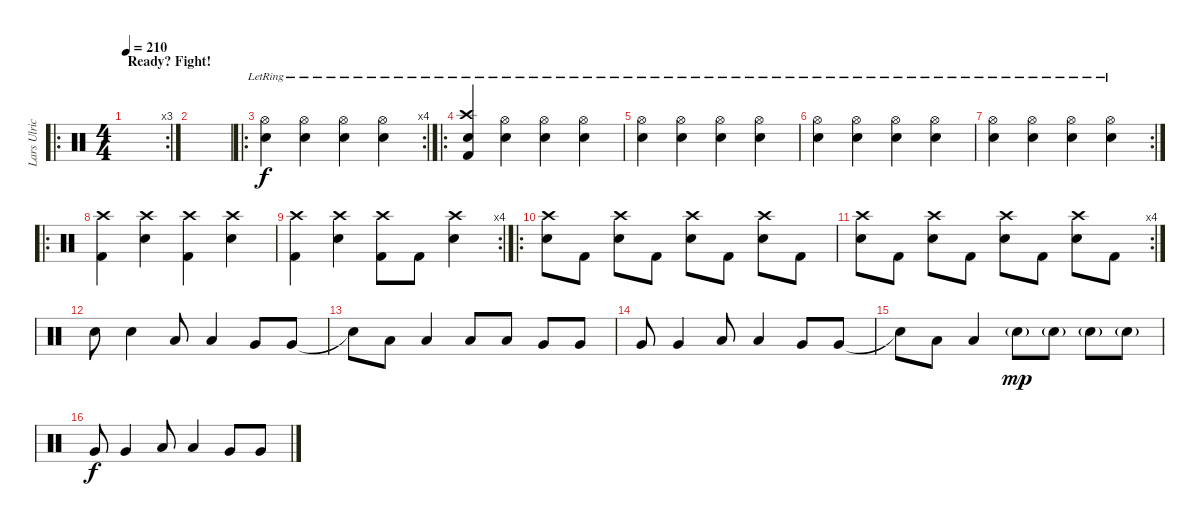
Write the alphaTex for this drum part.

\track ("Lars Ulrich" "Lars Ulric") {instrument percussion}
\staff {score}
\articulation defaults
\ro
\rc 3
\ts (4 4)
\section ("" "Ready? Fight!")
\tempo 210
\clef neutral
\ks c
|
|
\ro
\rc 4
("Hi-Hat (open)"{lr} "Snare (hit) 2").4 ("Hi-Hat (open)"{lr} "Snare (hit) 2").4 ("Hi-Hat (open)"{lr} "Snare (hit) 2").4 ("Hi-Hat (open)"{lr} "Snare (hit) 2").4 |
\ro
("Crash high (hit)"{lr} "Snare (hit) 2" "Kick (hit) 2").4 ("Hi-Hat (open)"{lr} "Snare (hit) 2").4 ("Hi-Hat (open)"{lr} "Snare (hit) 2").4 ("Hi-Hat (open)"{lr} "Snare (hit) 2").4 |
("Hi-Hat (open)"{lr} "Snare (hit) 2").4 ("Hi-Hat (open)"{lr} "Snare (hit) 2").4 ("Hi-Hat (open)"{lr} "Snare (hit) 2").4 ("Hi-Hat (open)"{lr} "Snare (hit) 2").4 |
("Hi-Hat (open)"{lr} "Snare (hit) 2").4 ("Hi-Hat (open)"{lr} "Snare (hit) 2").4 ("Hi-Hat (open)"{lr} "Snare (hit) 2").4 ("Hi-Hat (open)"{lr} "Snare (hit) 2").4 |
\rc 2
("Hi-Hat (open)"{lr} "Snare (hit) 2").4 ("Hi-Hat (open)"{lr} "Snare (hit) 2").4 ("Hi-Hat (open)"{lr} "Snare (hit) 2").4 ("Hi-Hat (open)"{lr} "Snare (hit) 2").4 |
\ro
("Crash high (hit)" "Kick (hit) 2").4 ("Crash high (hit)" "Snare (hit) 2").4 ("Crash high (hit)" "Kick (hit) 2").4 ("Crash high (hit)" "Snare (hit) 2").4 |
\rc 4
("Crash high (hit)" "Kick (hit) 2").4 ("Crash high (hit)" "Snare (hit) 2").4 ("Crash high (hit)" "Kick (hit) 2").8 "Kick (hit) 2".8 ("Crash high (hit)" "Snare (hit) 2").4 |
\ro
("Crash high (hit)" "Snare (hit) 2").8 "Kick (hit) 2".8 ("Crash high (hit)" "Snare (hit) 2").8 "Kick (hit) 2".8 ("Crash high (hit)" "Snare (hit) 2").8 "Kick (hit) 2".8 ("Crash high (hit)" "Snare (hit) 2").8 "Kick (hit) 2".8 |
\rc 4
("Crash high (hit)" "Snare (hit) 2").8 "Kick (hit) 2".8 ("Crash high (hit)" "Snare (hit) 2").8 "Kick (hit) 2".8 ("Crash high (hit)" "Snare (hit) 2").8 "Kick (hit) 2".8 ("Crash high (hit)" "Snare (hit) 2").8 "Kick (hit) 2".8 |
"Snare (hit) 2".8 "Snare (hit) 2".4 "Low Tom (hit)".8 "Low Tom (hit)".4 "Very Low Tom (hit)".8 "Very Low Tom (hit)".8 |
"Snare (hit)"{t}.8 "Low Floor Tom (hit)".8 "Low Floor Tom (hit)".4 "Low Tom (hit)".8 "Low Tom (hit)".8 "Very Low Tom (hit)".8 "Very Low Tom (hit)".8 |
"Very Low Tom (hit)".8 "Very Low Tom (hit)".4 "Low Tom (hit)".8 "Low Tom (hit)".4 "Very Low Tom (hit)".8 "Very Low Tom (hit)".8 |
"Snare (hit)"{t}.8 "Low Floor Tom (hit)".8 "Low Floor Tom (hit)".4 "Electric Snare (hit)"{g}.8{dy mp} "Electric Snare (hit)"{g}.8 "Electric Snare (hit)"{g}.8 "Electric Snare (hit)"{g}.8 |
"Very Low Tom (hit)".8{dy f} "Very Low Tom (hit)".4 "Low Tom (hit)".8 "Low Tom (hit)".4 "Very Low Tom (hit)".8 "Very Low Tom (hit)".8
